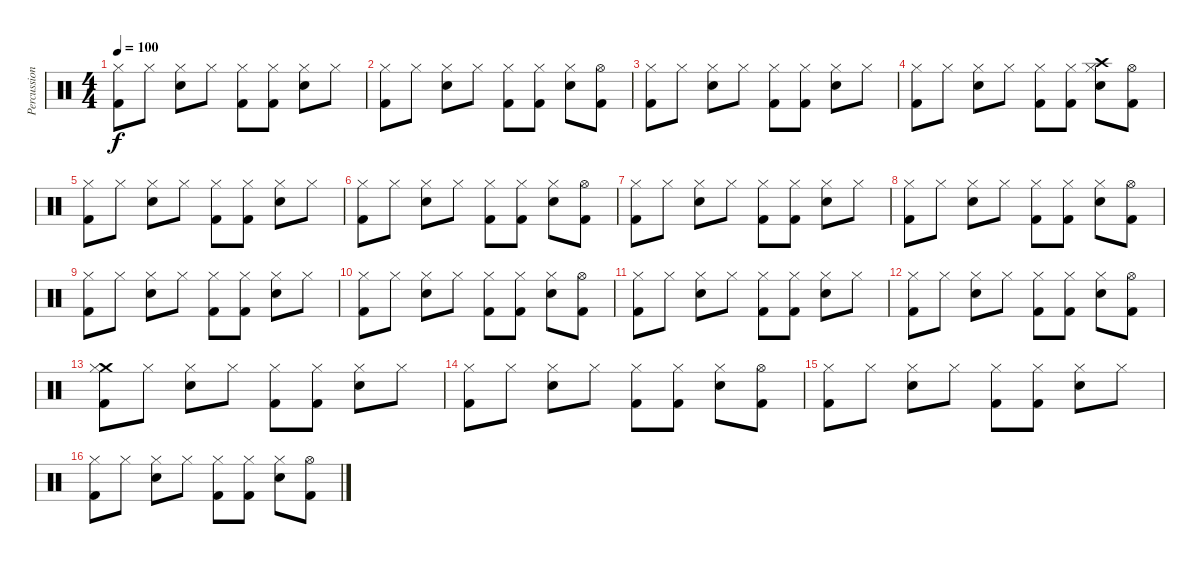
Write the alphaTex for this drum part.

\track ("Percussion" "Percussion") {instrument percussion}
\staff {score}
\articulation defaults
\ts (4 4)
\tempo 100
\clef neutral
\ks c
("Kick (hit) 2" "Hi-Hat (closed)").8{dy f} "Hi-Hat (closed)".8 ("Snare (hit) 2" "Hi-Hat (closed)").8 "Hi-Hat (closed)".8 ("Kick (hit) 2" "Hi-Hat (closed)").8 ("Kick (hit) 2" "Hi-Hat (closed)").8 ("Snare (hit) 2" "Hi-Hat (closed)").8 "Hi-Hat (closed)".8 |
("Kick (hit) 2" "Hi-Hat (closed)").8 "Hi-Hat (closed)".8 ("Snare (hit) 2" "Hi-Hat (closed)").8 "Hi-Hat (closed)".8 ("Kick (hit) 2" "Hi-Hat (closed)").8 ("Kick (hit) 2" "Hi-Hat (closed)").8 ("Snare (hit) 2" "Hi-Hat (closed)").8 ("Kick (hit) 2" "Hi-Hat (open)").8 |
("Kick (hit) 2" "Hi-Hat (closed)").8 "Hi-Hat (closed)".8 ("Snare (hit) 2" "Hi-Hat (closed)").8 "Hi-Hat (closed)".8 ("Kick (hit) 2" "Hi-Hat (closed)").8 ("Kick (hit) 2" "Hi-Hat (closed)").8 ("Snare (hit) 2" "Hi-Hat (closed)").8 "Hi-Hat (closed)".8 |
("Kick (hit) 2" "Hi-Hat (closed)").8 "Hi-Hat (closed)".8 ("Snare (hit) 2" "Hi-Hat (closed)").8 "Hi-Hat (closed)".8 ("Kick (hit) 2" "Hi-Hat (closed)").8 ("Kick (hit) 2" "Hi-Hat (closed)").8 ("Crash high (hit)" "Snare (hit) 2" "Hi-Hat (closed)").8 ("Kick (hit) 2" "Hi-Hat (open)").8 |
("Kick (hit) 2" "Hi-Hat (closed)").8 "Hi-Hat (closed)".8 ("Snare (hit) 2" "Hi-Hat (closed)").8 "Hi-Hat (closed)".8 ("Kick (hit) 2" "Hi-Hat (closed)").8 ("Kick (hit) 2" "Hi-Hat (closed)").8 ("Snare (hit) 2" "Hi-Hat (closed)").8 "Hi-Hat (closed)".8 |
("Kick (hit) 2" "Hi-Hat (closed)").8 "Hi-Hat (closed)".8 ("Snare (hit) 2" "Hi-Hat (closed)").8 "Hi-Hat (closed)".8 ("Kick (hit) 2" "Hi-Hat (closed)").8 ("Kick (hit) 2" "Hi-Hat (closed)").8 ("Snare (hit) 2" "Hi-Hat (closed)").8 ("Kick (hit) 2" "Hi-Hat (open)").8 |
("Kick (hit) 2" "Hi-Hat (closed)").8 "Hi-Hat (closed)".8 ("Snare (hit) 2" "Hi-Hat (closed)").8 "Hi-Hat (closed)".8 ("Kick (hit) 2" "Hi-Hat (closed)").8 ("Kick (hit) 2" "Hi-Hat (closed)").8 ("Snare (hit) 2" "Hi-Hat (closed)").8 "Hi-Hat (closed)".8 |
("Kick (hit) 2" "Hi-Hat (closed)").8 "Hi-Hat (closed)".8 ("Snare (hit) 2" "Hi-Hat (closed)").8 "Hi-Hat (closed)".8 ("Kick (hit) 2" "Hi-Hat (closed)").8 ("Kick (hit) 2" "Hi-Hat (closed)").8 ("Snare (hit) 2" "Hi-Hat (closed)").8 ("Kick (hit) 2" "Hi-Hat (open)").8 |
("Kick (hit) 2" "Hi-Hat (closed)").8 "Hi-Hat (closed)".8 ("Snare (hit) 2" "Hi-Hat (closed)").8 "Hi-Hat (closed)".8 ("Kick (hit) 2" "Hi-Hat (closed)").8 ("Kick (hit) 2" "Hi-Hat (closed)").8 ("Snare (hit) 2" "Hi-Hat (closed)").8 "Hi-Hat (closed)".8 |
("Kick (hit) 2" "Hi-Hat (closed)").8 "Hi-Hat (closed)".8 ("Snare (hit) 2" "Hi-Hat (closed)").8 "Hi-Hat (closed)".8 ("Kick (hit) 2" "Hi-Hat (closed)").8 ("Kick (hit) 2" "Hi-Hat (closed)").8 ("Snare (hit) 2" "Hi-Hat (closed)").8 ("Kick (hit) 2" "Hi-Hat (open)").8 |
("Kick (hit) 2" "Hi-Hat (closed)").8 "Hi-Hat (closed)".8 ("Snare (hit) 2" "Hi-Hat (closed)").8 "Hi-Hat (closed)".8 ("Kick (hit) 2" "Hi-Hat (closed)").8 ("Kick (hit) 2" "Hi-Hat (closed)").8 ("Snare (hit) 2" "Hi-Hat (closed)").8 "Hi-Hat (closed)".8 |
("Kick (hit) 2" "Hi-Hat (closed)").8 "Hi-Hat (closed)".8 ("Snare (hit) 2" "Hi-Hat (closed)").8 "Hi-Hat (closed)".8 ("Kick (hit) 2" "Hi-Hat (closed)").8 ("Kick (hit) 2" "Hi-Hat (closed)").8 ("Snare (hit) 2" "Hi-Hat (closed)").8 ("Kick (hit) 2" "Hi-Hat (open)").8 |
("Crash medium (hit)" "Kick (hit) 2" "Hi-Hat (closed)").8 "Hi-Hat (closed)".8 ("Snare (hit) 2" "Hi-Hat (closed)").8 "Hi-Hat (closed)".8 ("Kick (hit) 2" "Hi-Hat (closed)").8 ("Kick (hit) 2" "Hi-Hat (closed)").8 ("Snare (hit) 2" "Hi-Hat (closed)").8 "Hi-Hat (closed)".8 |
("Kick (hit) 2" "Hi-Hat (closed)").8 "Hi-Hat (closed)".8 ("Snare (hit) 2" "Hi-Hat (closed)").8 "Hi-Hat (closed)".8 ("Kick (hit) 2" "Hi-Hat (closed)").8 ("Kick (hit) 2" "Hi-Hat (closed)").8 ("Snare (hit) 2" "Hi-Hat (closed)").8 ("Kick (hit) 2" "Hi-Hat (open)").8 |
("Kick (hit) 2" "Hi-Hat (closed)").8 "Hi-Hat (closed)".8 ("Snare (hit) 2" "Hi-Hat (closed)").8 "Hi-Hat (closed)".8 ("Kick (hit) 2" "Hi-Hat (closed)").8 ("Kick (hit) 2" "Hi-Hat (closed)").8 ("Snare (hit) 2" "Hi-Hat (closed)").8 "Hi-Hat (closed)".8 |
("Kick (hit) 2" "Hi-Hat (closed)").8 "Hi-Hat (closed)".8 ("Snare (hit) 2" "Hi-Hat (closed)").8 "Hi-Hat (closed)".8 ("Kick (hit) 2" "Hi-Hat (closed)").8 ("Kick (hit) 2" "Hi-Hat (closed)").8 ("Snare (hit) 2" "Hi-Hat (closed)").8 ("Kick (hit) 2" "Hi-Hat (open)").8
